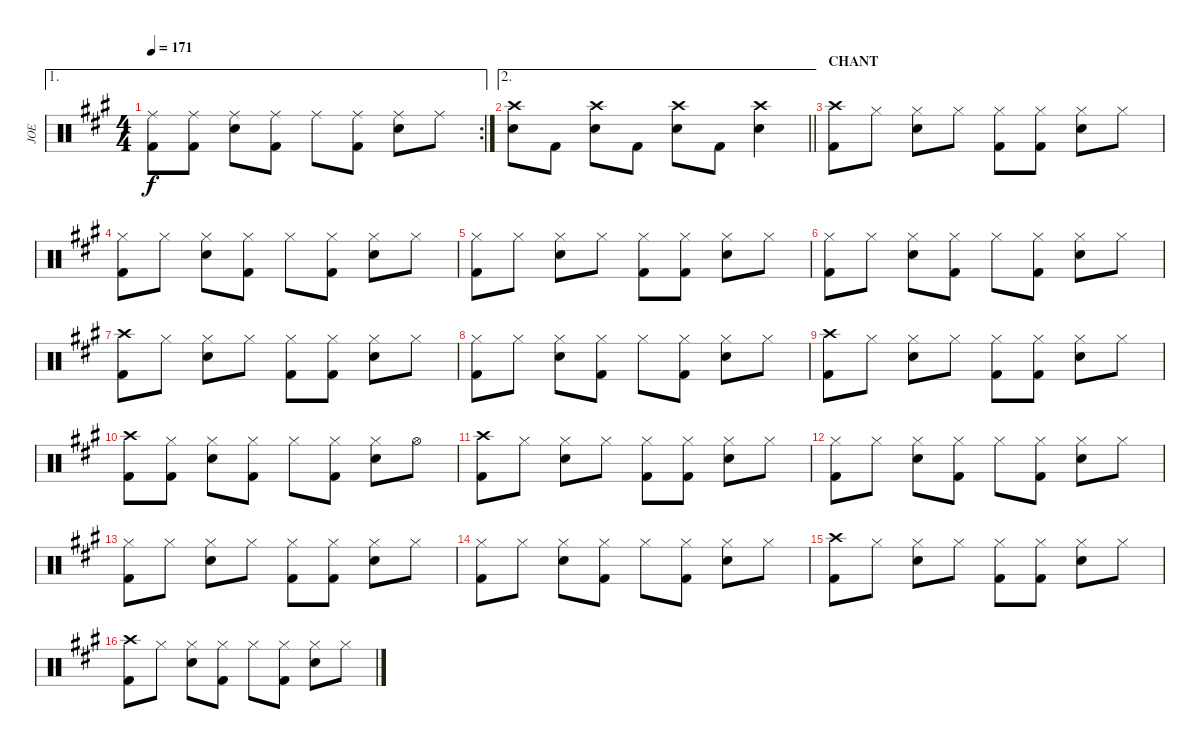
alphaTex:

\track ("JOE" "JOE") {instrument percussion}
\staff {score}
\articulation defaults
\ae 1
\rc 2
\ts (4 4)
\tempo 171
\clef neutral
\ks a
("Ride (middle)" "Kick (hit) 2").8{dy f} ("Ride (middle)" "Kick (hit) 2").8 ("Ride (middle)" "Snare (hit) 2").8 ("Ride (middle)" "Kick (hit) 2").8 "Ride (middle)".8 ("Ride (middle)" "Kick (hit) 2").8 ("Ride (middle)" "Snare (hit) 2").8 "Ride (middle)".8 |
\ae 2
\barLineRight lightlight
("Crash high (hit)" "Snare (hit) 2").8 "Kick (hit) 2".8 ("Crash high (hit)" "Snare (hit) 2").8 "Kick (hit) 2".8 ("Crash high (hit)" "Snare (hit) 2").8 "Kick (hit) 2".8 ("Crash high (hit)" "Snare (hit) 2").4 |
\section ("" "CHANT")
("Crash high (hit)" "Kick (hit) 2").8 "Hi-Hat (closed)".8 ("Hi-Hat (closed)" "Snare (hit) 2").8 "Hi-Hat (closed)".8 ("Hi-Hat (closed)" "Kick (hit) 2").8 ("Hi-Hat (closed)" "Kick (hit) 2").8 ("Hi-Hat (closed)" "Snare (hit) 2").8 "Hi-Hat (closed)".8 |
("Hi-Hat (closed)" "Kick (hit) 2").8 "Hi-Hat (closed)".8 ("Hi-Hat (closed)" "Snare (hit) 2").8 ("Hi-Hat (closed)" "Kick (hit) 2").8 "Hi-Hat (closed)".8 ("Hi-Hat (closed)" "Kick (hit) 2").8 ("Hi-Hat (closed)" "Snare (hit) 2").8 "Hi-Hat (closed)".8 |
("Hi-Hat (closed)" "Kick (hit) 2").8 "Hi-Hat (closed)".8 ("Hi-Hat (closed)" "Snare (hit) 2").8 "Hi-Hat (closed)".8 ("Hi-Hat (closed)" "Kick (hit) 2").8 ("Hi-Hat (closed)" "Kick (hit) 2").8 ("Hi-Hat (closed)" "Snare (hit) 2").8 "Hi-Hat (closed)".8 |
("Hi-Hat (closed)" "Kick (hit) 2").8 "Hi-Hat (closed)".8 ("Hi-Hat (closed)" "Snare (hit) 2").8 ("Hi-Hat (closed)" "Kick (hit) 2").8 "Hi-Hat (closed)".8 ("Hi-Hat (closed)" "Kick (hit) 2").8 ("Hi-Hat (closed)" "Snare (hit) 2").8 "Hi-Hat (closed)".8 |
("Crash high (hit)" "Kick (hit) 2").8 "Hi-Hat (closed)".8 ("Hi-Hat (closed)" "Snare (hit) 2").8 "Hi-Hat (closed)".8 ("Hi-Hat (closed)" "Kick (hit) 2").8 ("Hi-Hat (closed)" "Kick (hit) 2").8 ("Hi-Hat (closed)" "Snare (hit) 2").8 "Hi-Hat (closed)".8 |
("Hi-Hat (closed)" "Kick (hit) 2").8 "Hi-Hat (closed)".8 ("Hi-Hat (closed)" "Snare (hit) 2").8 ("Hi-Hat (closed)" "Kick (hit) 2").8 "Hi-Hat (closed)".8 ("Hi-Hat (closed)" "Kick (hit) 2").8 ("Hi-Hat (closed)" "Snare (hit) 2").8 "Hi-Hat (closed)".8 |
("Crash high (hit)" "Kick (hit) 2").8 "Hi-Hat (closed)".8 ("Hi-Hat (closed)" "Snare (hit) 2").8 "Hi-Hat (closed)".8 ("Hi-Hat (closed)" "Kick (hit) 2").8 ("Hi-Hat (closed)" "Kick (hit) 2").8 ("Hi-Hat (closed)" "Snare (hit) 2").8 "Hi-Hat (closed)".8 |
("Crash high (hit)" "Kick (hit) 2").8 ("Hi-Hat (closed)" "Kick (hit) 2").8 ("Hi-Hat (closed)" "Snare (hit) 2").8 ("Hi-Hat (closed)" "Kick (hit) 2").8 "Hi-Hat (closed)".8 ("Hi-Hat (closed)" "Kick (hit) 2").8 ("Hi-Hat (closed)" "Snare (hit) 2").8 "Hi-Hat (open)".8 |
("Crash high (hit)" "Kick (hit) 2").8 "Hi-Hat (closed)".8 ("Hi-Hat (closed)" "Snare (hit) 2").8 "Hi-Hat (closed)".8 ("Hi-Hat (closed)" "Kick (hit) 2").8 ("Hi-Hat (closed)" "Kick (hit) 2").8 ("Hi-Hat (closed)" "Snare (hit) 2").8 "Hi-Hat (closed)".8 |
("Hi-Hat (closed)" "Kick (hit) 2").8 "Hi-Hat (closed)".8 ("Hi-Hat (closed)" "Snare (hit) 2").8 ("Hi-Hat (closed)" "Kick (hit) 2").8 "Hi-Hat (closed)".8 ("Hi-Hat (closed)" "Kick (hit) 2").8 ("Hi-Hat (closed)" "Snare (hit) 2").8 "Hi-Hat (closed)".8 |
("Hi-Hat (closed)" "Kick (hit) 2").8 "Hi-Hat (closed)".8 ("Hi-Hat (closed)" "Snare (hit) 2").8 "Hi-Hat (closed)".8 ("Hi-Hat (closed)" "Kick (hit) 2").8 ("Hi-Hat (closed)" "Kick (hit) 2").8 ("Hi-Hat (closed)" "Snare (hit) 2").8 "Hi-Hat (closed)".8 |
("Hi-Hat (closed)" "Kick (hit) 2").8 "Hi-Hat (closed)".8 ("Hi-Hat (closed)" "Snare (hit) 2").8 ("Hi-Hat (closed)" "Kick (hit) 2").8 "Hi-Hat (closed)".8 ("Hi-Hat (closed)" "Kick (hit) 2").8 ("Hi-Hat (closed)" "Snare (hit) 2").8 "Hi-Hat (closed)".8 |
("Crash high (hit)" "Kick (hit) 2").8 "Hi-Hat (closed)".8 ("Hi-Hat (closed)" "Snare (hit) 2").8 "Hi-Hat (closed)".8 ("Hi-Hat (closed)" "Kick (hit) 2").8 ("Hi-Hat (closed)" "Kick (hit) 2").8 ("Hi-Hat (closed)" "Snare (hit) 2").8 "Hi-Hat (closed)".8 |
("Crash high (hit)" "Kick (hit) 2").8 "Hi-Hat (closed)".8 ("Hi-Hat (closed)" "Snare (hit) 2").8 ("Hi-Hat (closed)" "Kick (hit) 2").8 "Hi-Hat (closed)".8 ("Hi-Hat (closed)" "Kick (hit) 2").8 ("Hi-Hat (closed)" "Snare (hit) 2").8 "Hi-Hat (closed)".8
